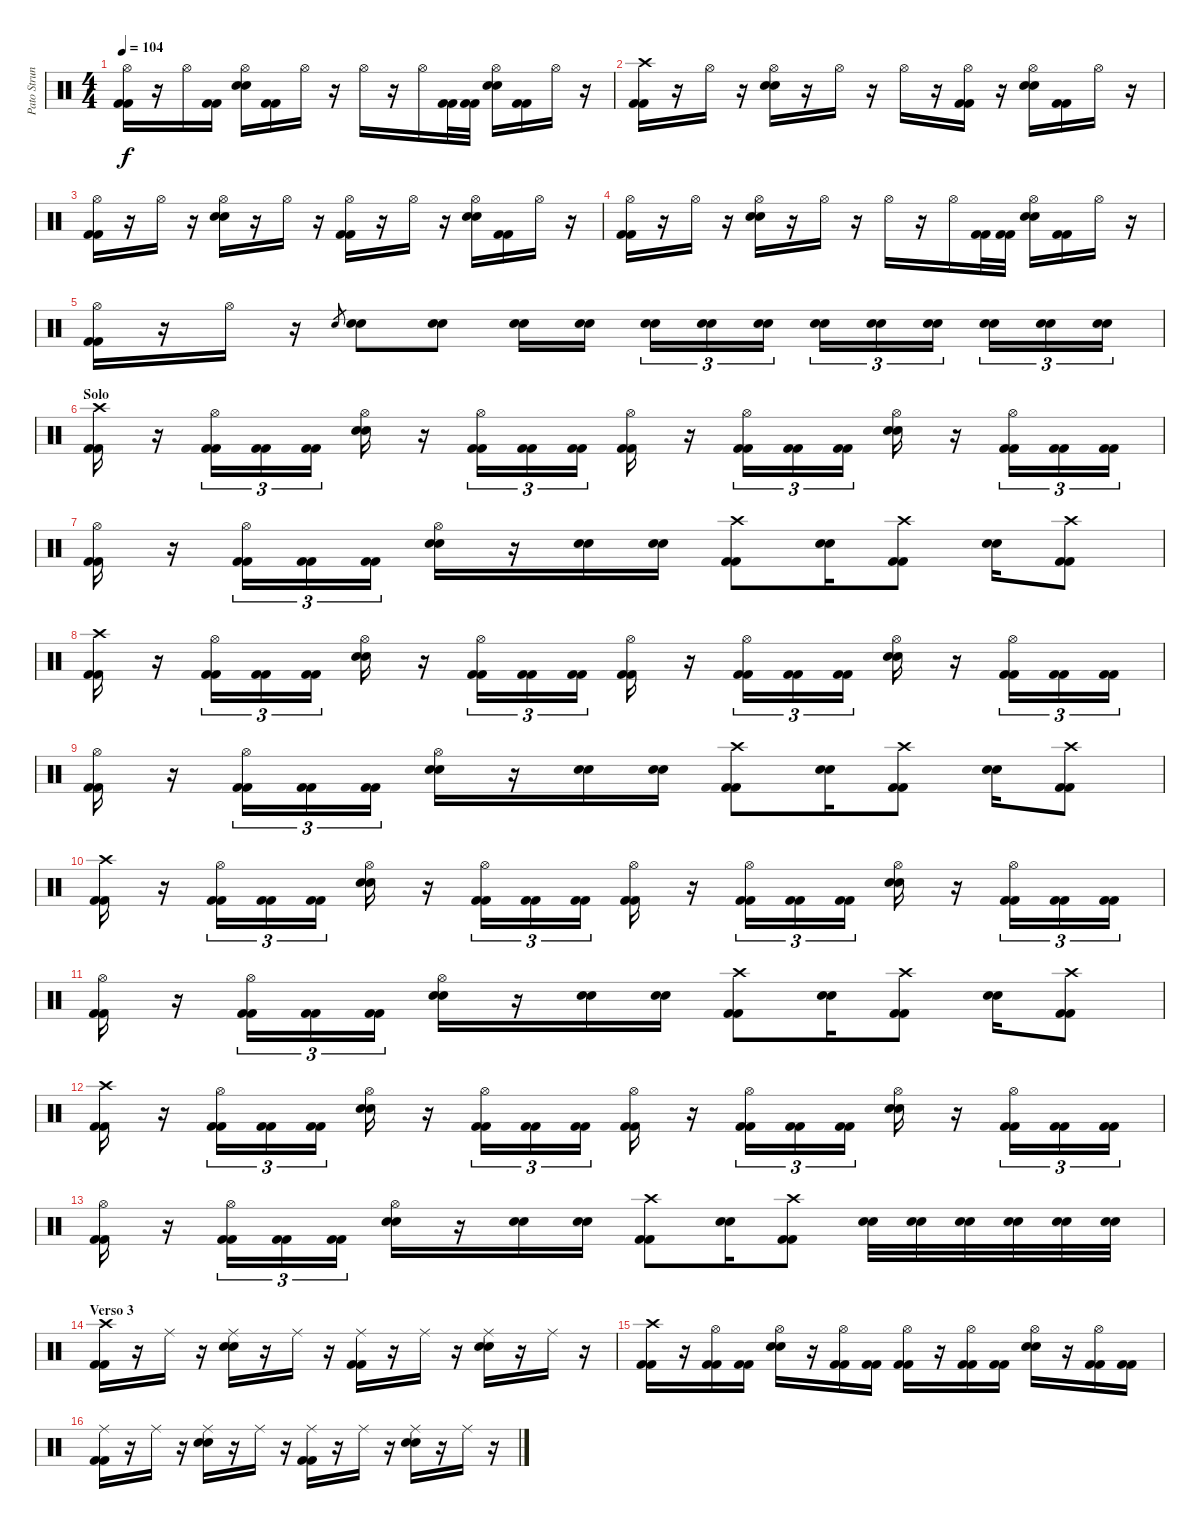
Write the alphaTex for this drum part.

\track ("Pato Strunz (Bateria)" "Pato Strun") {instrument percussion}
\staff {score}
\articulation defaults
\ts (4 4)
\tempo 104
\clef neutral
\ks c
("Hi-Hat (open)" "Kick (hit) 2" "Kick (hit) 2").16{dy f} r.16 "Hi-Hat (open)".16 ("Kick (hit) 2" "Kick (hit) 2").16 ("Hi-Hat (open)" "Snare (hit) 2" "Snare (hit) 2").16 ("Kick (hit) 2" "Kick (hit) 2").16 "Hi-Hat (open)".16 r.16 "Hi-Hat (open)".16 r.16 "Hi-Hat (open)".16 ("Kick (hit) 2" "Kick (hit) 2").32 ("Kick (hit) 2" "Kick (hit) 2").32 ("Hi-Hat (open)" "Snare (hit) 2" "Snare (hit) 2").16 ("Kick (hit) 2" "Kick (hit) 2").16 "Hi-Hat (open)".16 r.16 |
("Crash high (hit)" "Kick (hit) 2" "Kick (hit) 2").16 r.16 "Hi-Hat (open)".16 r.16 ("Hi-Hat (open)" "Snare (hit) 2" "Snare (hit) 2").16 r.16 "Hi-Hat (open)".16 r.16 "Hi-Hat (open)".16 r.16 ("Hi-Hat (open)" "Kick (hit) 2" "Kick (hit) 2").16 r.16 ("Hi-Hat (open)" "Snare (hit) 2" "Snare (hit) 2").16 ("Kick (hit) 2" "Kick (hit) 2").16 "Hi-Hat (open)".16 r.16 |
("Hi-Hat (open)" "Kick (hit) 2" "Kick (hit) 2").16 r.16 "Hi-Hat (open)".16 r.16 ("Hi-Hat (open)" "Snare (hit) 2" "Snare (hit) 2").16 r.16 "Hi-Hat (open)".16 r.16 ("Hi-Hat (open)" "Kick (hit) 2" "Kick (hit) 2").16 r.16 "Hi-Hat (open)".16 r.16 ("Hi-Hat (open)" "Snare (hit) 2" "Snare (hit) 2").16 ("Kick (hit) 2" "Kick (hit) 2").16 "Hi-Hat (open)".16 r.16 |
("Hi-Hat (open)" "Kick (hit) 2" "Kick (hit) 2").16 r.16 "Hi-Hat (open)".16 r.16 ("Hi-Hat (open)" "Snare (hit) 2" "Snare (hit) 2").16 r.16 "Hi-Hat (open)".16 r.16 "Hi-Hat (open)".16 r.16 "Hi-Hat (open)".16 ("Kick (hit) 2" "Kick (hit) 2").32 ("Kick (hit) 2" "Kick (hit) 2").32 ("Hi-Hat (open)" "Snare (hit) 2" "Snare (hit) 2").16 ("Kick (hit) 2" "Kick (hit) 2").16 "Hi-Hat (open)".16 r.16 |
("Hi-Hat (open)" "Kick (hit) 2" "Kick (hit) 2").16 r.16 "Hi-Hat (open)".16 r.16 "Snare (hit) 2".8{gr} ("Snare (hit) 2" "Snare (hit) 2").8 ("Snare (hit) 2" "Snare (hit) 2").8 ("Snare (hit) 2" "Snare (hit) 2").16 ("Snare (hit) 2" "Snare (hit) 2").16 ("Snare (hit) 2" "Snare (hit) 2").16{tu (3 2)} ("Snare (hit) 2" "Snare (hit) 2").16{tu (3 2)} ("Snare (hit) 2" "Snare (hit) 2").16{tu (3 2)} ("Snare (hit) 2" "Snare (hit) 2").16{tu (3 2)} ("Snare (hit) 2" "Snare (hit) 2").16{tu (3 2)} ("Snare (hit) 2" "Snare (hit) 2").16{tu (3 2)} ("Snare (hit) 2" "Snare (hit) 2").16{tu (3 2)} ("Snare (hit) 2" "Snare (hit) 2").16{tu (3 2)} ("Snare (hit) 2" "Snare (hit) 2").16{tu (3 2)} |
\section ("" "Solo")
("Crash high (hit)" "Kick (hit) 2" "Kick (hit) 2").16 r.16 ("Hi-Hat (open)" "Kick (hit) 2" "Kick (hit) 2").16{tu (3 2)} ("Kick (hit) 2" "Kick (hit) 2").16{tu (3 2)} ("Kick (hit) 2" "Kick (hit) 2").16{tu (3 2)} ("Hi-Hat (open)" "Snare (hit) 2" "Snare (hit) 2").16 r.16 ("Hi-Hat (open)" "Kick (hit) 2" "Kick (hit) 2").16{tu (3 2)} ("Kick (hit) 2" "Kick (hit) 2").16{tu (3 2)} ("Kick (hit) 2" "Kick (hit) 2").16{tu (3 2)} ("Hi-Hat (open)" "Kick (hit) 2" "Kick (hit) 2").16 r.16 ("Hi-Hat (open)" "Kick (hit) 2" "Kick (hit) 2").16{tu (3 2)} ("Kick (hit) 2" "Kick (hit) 2").16{tu (3 2)} ("Kick (hit) 2" "Kick (hit) 2").16{tu (3 2)} ("Hi-Hat (open)" "Snare (hit) 2" "Snare (hit) 2").16 r.16 ("Hi-Hat (open)" "Kick (hit) 2" "Kick (hit) 2").16{tu (3 2)} ("Kick (hit) 2" "Kick (hit) 2").16{tu (3 2)} ("Kick (hit) 2" "Kick (hit) 2").16{tu (3 2)} |
("Hi-Hat (open)" "Kick (hit) 2" "Kick (hit) 2").16 r.16 ("Hi-Hat (open)" "Kick (hit) 2" "Kick (hit) 2").16{tu (3 2)} ("Kick (hit) 2" "Kick (hit) 2").16{tu (3 2)} ("Kick (hit) 2" "Kick (hit) 2").16{tu (3 2)} ("Hi-Hat (open)" "Snare (hit) 2" "Snare (hit) 2").16 r.16 ("Snare (hit) 2" "Snare (hit) 2").16 ("Snare (hit) 2" "Snare (hit) 2").16 ("Crash high (hit)" "Kick (hit) 2" "Kick (hit) 2").8 ("Snare (hit) 2" "Snare (hit) 2").16 ("Crash high (hit)" "Kick (hit) 2" "Kick (hit) 2").8 ("Snare (hit) 2" "Snare (hit) 2").16 ("Crash high (hit)" "Kick (hit) 2" "Kick (hit) 2").8 |
("Crash high (hit)" "Kick (hit) 2" "Kick (hit) 2").16 r.16 ("Hi-Hat (open)" "Kick (hit) 2" "Kick (hit) 2").16{tu (3 2)} ("Kick (hit) 2" "Kick (hit) 2").16{tu (3 2)} ("Kick (hit) 2" "Kick (hit) 2").16{tu (3 2)} ("Hi-Hat (open)" "Snare (hit) 2" "Snare (hit) 2").16 r.16 ("Hi-Hat (open)" "Kick (hit) 2" "Kick (hit) 2").16{tu (3 2)} ("Kick (hit) 2" "Kick (hit) 2").16{tu (3 2)} ("Kick (hit) 2" "Kick (hit) 2").16{tu (3 2)} ("Hi-Hat (open)" "Kick (hit) 2" "Kick (hit) 2").16 r.16 ("Hi-Hat (open)" "Kick (hit) 2" "Kick (hit) 2").16{tu (3 2)} ("Kick (hit) 2" "Kick (hit) 2").16{tu (3 2)} ("Kick (hit) 2" "Kick (hit) 2").16{tu (3 2)} ("Hi-Hat (open)" "Snare (hit) 2" "Snare (hit) 2").16 r.16 ("Hi-Hat (open)" "Kick (hit) 2" "Kick (hit) 2").16{tu (3 2)} ("Kick (hit) 2" "Kick (hit) 2").16{tu (3 2)} ("Kick (hit) 2" "Kick (hit) 2").16{tu (3 2)} |
("Hi-Hat (open)" "Kick (hit) 2" "Kick (hit) 2").16 r.16 ("Hi-Hat (open)" "Kick (hit) 2" "Kick (hit) 2").16{tu (3 2)} ("Kick (hit) 2" "Kick (hit) 2").16{tu (3 2)} ("Kick (hit) 2" "Kick (hit) 2").16{tu (3 2)} ("Hi-Hat (open)" "Snare (hit) 2" "Snare (hit) 2").16 r.16 ("Snare (hit) 2" "Snare (hit) 2").16 ("Snare (hit) 2" "Snare (hit) 2").16 ("Crash high (hit)" "Kick (hit) 2" "Kick (hit) 2").8 ("Snare (hit) 2" "Snare (hit) 2").16 ("Crash high (hit)" "Kick (hit) 2" "Kick (hit) 2").8 ("Snare (hit) 2" "Snare (hit) 2").16 ("Crash high (hit)" "Kick (hit) 2" "Kick (hit) 2").8 |
("Crash high (hit)" "Kick (hit) 2" "Kick (hit) 2").16 r.16 ("Hi-Hat (open)" "Kick (hit) 2" "Kick (hit) 2").16{tu (3 2)} ("Kick (hit) 2" "Kick (hit) 2").16{tu (3 2)} ("Kick (hit) 2" "Kick (hit) 2").16{tu (3 2)} ("Hi-Hat (open)" "Snare (hit) 2" "Snare (hit) 2").16 r.16 ("Hi-Hat (open)" "Kick (hit) 2" "Kick (hit) 2").16{tu (3 2)} ("Kick (hit) 2" "Kick (hit) 2").16{tu (3 2)} ("Kick (hit) 2" "Kick (hit) 2").16{tu (3 2)} ("Hi-Hat (open)" "Kick (hit) 2" "Kick (hit) 2").16 r.16 ("Hi-Hat (open)" "Kick (hit) 2" "Kick (hit) 2").16{tu (3 2)} ("Kick (hit) 2" "Kick (hit) 2").16{tu (3 2)} ("Kick (hit) 2" "Kick (hit) 2").16{tu (3 2)} ("Hi-Hat (open)" "Snare (hit) 2" "Snare (hit) 2").16 r.16 ("Hi-Hat (open)" "Kick (hit) 2" "Kick (hit) 2").16{tu (3 2)} ("Kick (hit) 2" "Kick (hit) 2").16{tu (3 2)} ("Kick (hit) 2" "Kick (hit) 2").16{tu (3 2)} |
("Hi-Hat (open)" "Kick (hit) 2" "Kick (hit) 2").16 r.16 ("Hi-Hat (open)" "Kick (hit) 2" "Kick (hit) 2").16{tu (3 2)} ("Kick (hit) 2" "Kick (hit) 2").16{tu (3 2)} ("Kick (hit) 2" "Kick (hit) 2").16{tu (3 2)} ("Hi-Hat (open)" "Snare (hit) 2" "Snare (hit) 2").16 r.16 ("Snare (hit) 2" "Snare (hit) 2").16 ("Snare (hit) 2" "Snare (hit) 2").16 ("Crash high (hit)" "Kick (hit) 2" "Kick (hit) 2").8 ("Snare (hit) 2" "Snare (hit) 2").16 ("Crash high (hit)" "Kick (hit) 2" "Kick (hit) 2").8 ("Snare (hit) 2" "Snare (hit) 2").16 ("Crash high (hit)" "Kick (hit) 2" "Kick (hit) 2").8 |
("Crash high (hit)" "Kick (hit) 2" "Kick (hit) 2").16 r.16 ("Hi-Hat (open)" "Kick (hit) 2" "Kick (hit) 2").16{tu (3 2)} ("Kick (hit) 2" "Kick (hit) 2").16{tu (3 2)} ("Kick (hit) 2" "Kick (hit) 2").16{tu (3 2)} ("Hi-Hat (open)" "Snare (hit) 2" "Snare (hit) 2").16 r.16 ("Hi-Hat (open)" "Kick (hit) 2" "Kick (hit) 2").16{tu (3 2)} ("Kick (hit) 2" "Kick (hit) 2").16{tu (3 2)} ("Kick (hit) 2" "Kick (hit) 2").16{tu (3 2)} ("Hi-Hat (open)" "Kick (hit) 2" "Kick (hit) 2").16 r.16 ("Hi-Hat (open)" "Kick (hit) 2" "Kick (hit) 2").16{tu (3 2)} ("Kick (hit) 2" "Kick (hit) 2").16{tu (3 2)} ("Kick (hit) 2" "Kick (hit) 2").16{tu (3 2)} ("Hi-Hat (open)" "Snare (hit) 2" "Snare (hit) 2").16 r.16 ("Hi-Hat (open)" "Kick (hit) 2" "Kick (hit) 2").16{tu (3 2)} ("Kick (hit) 2" "Kick (hit) 2").16{tu (3 2)} ("Kick (hit) 2" "Kick (hit) 2").16{tu (3 2)} |
("Hi-Hat (open)" "Kick (hit) 2" "Kick (hit) 2").16 r.16 ("Hi-Hat (open)" "Kick (hit) 2" "Kick (hit) 2").16{tu (3 2)} ("Kick (hit) 2" "Kick (hit) 2").16{tu (3 2)} ("Kick (hit) 2" "Kick (hit) 2").16{tu (3 2)} ("Hi-Hat (open)" "Snare (hit) 2" "Snare (hit) 2").16 r.16 ("Snare (hit) 2" "Snare (hit) 2").16 ("Snare (hit) 2" "Snare (hit) 2").16 ("Crash high (hit)" "Kick (hit) 2" "Kick (hit) 2").8 ("Snare (hit) 2" "Snare (hit) 2").16 ("Crash high (hit)" "Kick (hit) 2" "Kick (hit) 2").8 ("Snare (hit) 2" "Snare (hit) 2").32 ("Snare (hit) 2" "Snare (hit) 2").32 ("Snare (hit) 2" "Snare (hit) 2").32 ("Snare (hit) 2" "Snare (hit) 2").32 ("Snare (hit) 2" "Snare (hit) 2").32 ("Snare (hit) 2" "Snare (hit) 2").32 |
\section ("" "Verso 3")
("Crash high (hit)" "Kick (hit) 2" "Kick (hit) 2").16 r.16 "Ride (middle)".16 r.16 ("Ride (middle)" "Snare (hit) 2" "Snare (hit) 2").16 r.16 "Ride (middle)".16 r.16 ("Ride (middle)" "Kick (hit) 2" "Kick (hit) 2").16 r.16 "Ride (middle)".16 r.16 ("Ride (middle)" "Snare (hit) 2" "Snare (hit) 2").16 r.16 "Ride (middle)".16 r.16 |
("Crash high (hit)" "Kick (hit) 2" "Kick (hit) 2").16 r.16 ("Hi-Hat (open)" "Kick (hit) 2" "Kick (hit) 2").16 ("Kick (hit) 2" "Kick (hit) 2").16 ("Hi-Hat (open)" "Snare (hit) 2" "Snare (hit) 2").16 r.16 ("Hi-Hat (open)" "Kick (hit) 2" "Kick (hit) 2").16 ("Kick (hit) 2" "Kick (hit) 2").16 ("Hi-Hat (open)" "Kick (hit) 2" "Kick (hit) 2").16 r.16 ("Hi-Hat (open)" "Kick (hit) 2" "Kick (hit) 2").16 ("Kick (hit) 2" "Kick (hit) 2").16 ("Hi-Hat (open)" "Snare (hit) 2" "Snare (hit) 2").16 r.16 ("Hi-Hat (open)" "Kick (hit) 2" "Kick (hit) 2").16 ("Kick (hit) 2" "Kick (hit) 2").16 |
("Ride (middle)" "Kick (hit) 2" "Kick (hit) 2").16 r.16 "Ride (middle)".16 r.16 ("Ride (middle)" "Snare (hit) 2" "Snare (hit) 2").16 r.16 "Ride (middle)".16 r.16 ("Ride (middle)" "Kick (hit) 2" "Kick (hit) 2").16 r.16 "Ride (middle)".16 r.16 ("Ride (middle)" "Snare (hit) 2" "Snare (hit) 2").16 r.16 "Ride (middle)".16 r.16
